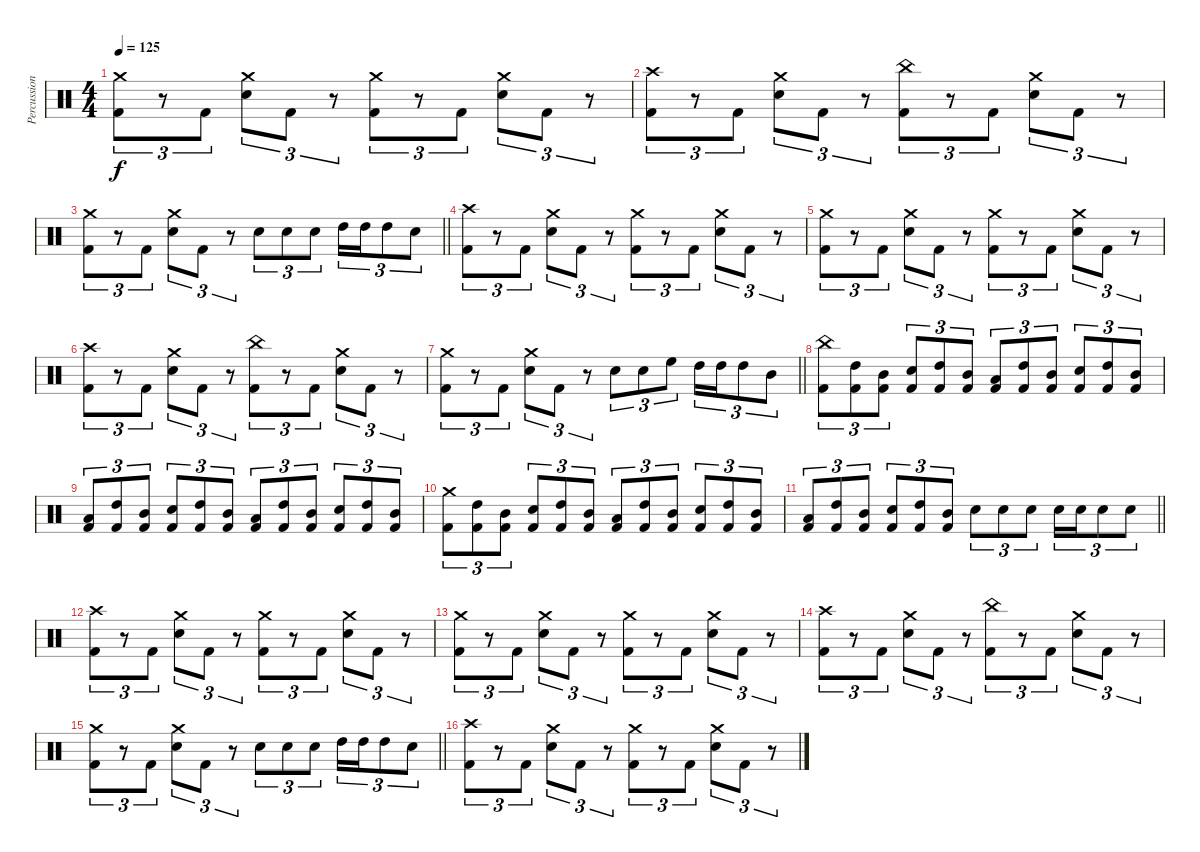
\track ("Percussion" "Percussion") {instrument percussion}
\staff {score}
\articulation defaults
\ts (4 4)
\tempo 125
\clef neutral
\ks c
("Crash medium (hit)" "Kick (hit) 2").8{tu (3 2) dy f} r.8{tu (3 2)} "Kick (hit) 2".8{tu (3 2)} ("Crash medium (hit)" "Snare (hit) 2").8{tu (3 2)} "Kick (hit) 2".8{tu (3 2)} r.8{tu (3 2)} ("Crash medium (hit)" "Kick (hit) 2").8{tu (3 2)} r.8{tu (3 2)} "Kick (hit) 2".8{tu (3 2)} ("Crash medium (hit)" "Snare (hit) 2").8{tu (3 2)} "Kick (hit) 2".8{tu (3 2)} r.8{tu (3 2)} |
("Crash high (hit)" "Kick (hit) 2").8{tu (3 2)} r.8{tu (3 2)} "Kick (hit) 2".8{tu (3 2)} ("Crash medium (hit)" "Snare (hit) 2").8{tu (3 2)} "Kick (hit) 2".8{tu (3 2)} r.8{tu (3 2)} ("China (hit)" "Kick (hit) 2").8{tu (3 2)} r.8{tu (3 2)} "Kick (hit) 2".8{tu (3 2)} ("Crash medium (hit)" "Snare (hit) 2").8{tu (3 2)} "Kick (hit) 2".8{tu (3 2)} r.8{tu (3 2)} |
\barLineRight lightlight
("Crash medium (hit)" "Kick (hit) 2").8{tu (3 2)} r.8{tu (3 2)} "Kick (hit) 2".8{tu (3 2)} ("Crash medium (hit)" "Snare (hit) 2").8{tu (3 2)} "Kick (hit) 2".8{tu (3 2)} r.8{tu (3 2)} "Snare (hit) 2".8{tu (3 2)} "Snare (hit) 2".8{tu (3 2)} "Snare (hit) 2".8{tu (3 2)} "High Tom (hit)".16{tu (3 2)} "High Tom (hit)".16{tu (3 2)} "High Tom (hit)".8{tu (3 2)} "Snare (hit) 2".8{tu (3 2)} |
("Crash high (hit)" "Kick (hit) 2").8{tu (3 2)} r.8{tu (3 2)} "Kick (hit) 2".8{tu (3 2)} ("Crash medium (hit)" "Snare (hit) 2").8{tu (3 2)} "Kick (hit) 2".8{tu (3 2)} r.8{tu (3 2)} ("Crash medium (hit)" "Kick (hit) 2").8{tu (3 2)} r.8{tu (3 2)} "Kick (hit) 2".8{tu (3 2)} ("Crash medium (hit)" "Snare (hit) 2").8{tu (3 2)} "Kick (hit) 2".8{tu (3 2)} r.8{tu (3 2)} |
("Crash medium (hit)" "Kick (hit) 2").8{tu (3 2)} r.8{tu (3 2)} "Kick (hit) 2".8{tu (3 2)} ("Crash medium (hit)" "Snare (hit) 2").8{tu (3 2)} "Kick (hit) 2".8{tu (3 2)} r.8{tu (3 2)} ("Crash medium (hit)" "Kick (hit) 2").8{tu (3 2)} r.8{tu (3 2)} "Kick (hit) 2".8{tu (3 2)} ("Crash medium (hit)" "Snare (hit) 2").8{tu (3 2)} "Kick (hit) 2".8{tu (3 2)} r.8{tu (3 2)} |
("Crash high (hit)" "Kick (hit) 2").8{tu (3 2)} r.8{tu (3 2)} "Kick (hit) 2".8{tu (3 2)} ("Crash medium (hit)" "Snare (hit) 2").8{tu (3 2)} "Kick (hit) 2".8{tu (3 2)} r.8{tu (3 2)} ("China (hit)" "Kick (hit) 2").8{tu (3 2)} r.8{tu (3 2)} "Kick (hit) 2".8{tu (3 2)} ("Crash medium (hit)" "Snare (hit) 2").8{tu (3 2)} "Kick (hit) 2".8{tu (3 2)} r.8{tu (3 2)} |
\barLineRight lightlight
("Crash medium (hit)" "Kick (hit) 2").8{tu (3 2)} r.8{tu (3 2)} "Kick (hit) 2".8{tu (3 2)} ("Crash medium (hit)" "Snare (hit) 2").8{tu (3 2)} "Kick (hit) 2".8{tu (3 2)} r.8{tu (3 2)} "Snare (hit) 2".8{tu (3 2)} "Snare (hit) 2".8{tu (3 2)} "High Floor Tom (hit)".8{tu (3 2)} "High Tom (hit)".16{tu (3 2)} "High Tom (hit)".16{tu (3 2)} "High Tom (hit)".8{tu (3 2)} "Mid Tom (hit)".8{tu (3 2)} |
("China (hit)" "Kick (hit) 2").8{tu (3 2)} ("High Tom (hit)" "Kick (hit) 2").8{tu (3 2)} ("Mid Tom (hit)" "Kick (hit) 2").8{tu (3 2)} ("Snare (hit) 2" "Kick (hit) 2").8{tu (3 2)} ("High Tom (hit)" "Kick (hit) 2").8{tu (3 2)} ("Mid Tom (hit)" "Kick (hit) 2").8{tu (3 2)} ("Low Tom (hit)" "Kick (hit) 2").8{tu (3 2)} ("High Tom (hit)" "Kick (hit) 2").8{tu (3 2)} ("Mid Tom (hit)" "Kick (hit) 2").8{tu (3 2)} ("Snare (hit) 2" "Kick (hit) 2").8{tu (3 2)} ("High Tom (hit)" "Kick (hit) 2").8{tu (3 2)} ("Mid Tom (hit)" "Kick (hit) 2").8{tu (3 2)} |
("Low Tom (hit)" "Kick (hit) 2").8{tu (3 2)} ("High Tom (hit)" "Kick (hit) 2").8{tu (3 2)} ("Mid Tom (hit)" "Kick (hit) 2").8{tu (3 2)} ("Snare (hit) 2" "Kick (hit) 2").8{tu (3 2)} ("High Tom (hit)" "Kick (hit) 2").8{tu (3 2)} ("Mid Tom (hit)" "Kick (hit) 2").8{tu (3 2)} ("Low Tom (hit)" "Kick (hit) 2").8{tu (3 2)} ("High Tom (hit)" "Kick (hit) 2").8{tu (3 2)} ("Mid Tom (hit)" "Kick (hit) 2").8{tu (3 2)} ("Snare (hit) 2" "Kick (hit) 2").8{tu (3 2)} ("High Tom (hit)" "Kick (hit) 2").8{tu (3 2)} ("Mid Tom (hit)" "Kick (hit) 2").8{tu (3 2)} |
("Crash medium (hit)" "Kick (hit) 2").8{tu (3 2)} ("High Tom (hit)" "Kick (hit) 2").8{tu (3 2)} ("Mid Tom (hit)" "Kick (hit) 2").8{tu (3 2)} ("Snare (hit) 2" "Kick (hit) 2").8{tu (3 2)} ("High Tom (hit)" "Kick (hit) 2").8{tu (3 2)} ("Mid Tom (hit)" "Kick (hit) 2").8{tu (3 2)} ("Low Tom (hit)" "Kick (hit) 2").8{tu (3 2)} ("High Tom (hit)" "Kick (hit) 2").8{tu (3 2)} ("Mid Tom (hit)" "Kick (hit) 2").8{tu (3 2)} ("Snare (hit) 2" "Kick (hit) 2").8{tu (3 2)} ("High Tom (hit)" "Kick (hit) 2").8{tu (3 2)} ("Mid Tom (hit)" "Kick (hit) 2").8{tu (3 2)} |
\barLineRight lightlight
("Low Tom (hit)" "Kick (hit) 2").8{tu (3 2)} ("High Tom (hit)" "Kick (hit) 2").8{tu (3 2)} ("Mid Tom (hit)" "Kick (hit) 2").8{tu (3 2)} ("Snare (hit) 2" "Kick (hit) 2").8{tu (3 2)} ("High Tom (hit)" "Kick (hit) 2").8{tu (3 2)} ("Mid Tom (hit)" "Kick (hit) 2").8{tu (3 2)} "Snare (hit) 2".8{tu (3 2)} "Snare (hit) 2".8{tu (3 2)} "Snare (hit) 2".8{tu (3 2)} "Snare (hit) 2".16{tu (3 2)} "Snare (hit) 2".16{tu (3 2)} "Snare (hit) 2".8{tu (3 2)} "Snare (hit) 2".8{tu (3 2)} |
\section ("" "")
("Crash high (hit)" "Kick (hit) 2").8{tu (3 2)} r.8{tu (3 2)} "Kick (hit) 2".8{tu (3 2)} ("Crash medium (hit)" "Snare (hit) 2").8{tu (3 2)} "Kick (hit) 2".8{tu (3 2)} r.8{tu (3 2)} ("Crash medium (hit)" "Kick (hit) 2").8{tu (3 2)} r.8{tu (3 2)} "Kick (hit) 2".8{tu (3 2)} ("Crash medium (hit)" "Snare (hit) 2").8{tu (3 2)} "Kick (hit) 2".8{tu (3 2)} r.8{tu (3 2)} |
("Crash medium (hit)" "Kick (hit) 2").8{tu (3 2)} r.8{tu (3 2)} "Kick (hit) 2".8{tu (3 2)} ("Crash medium (hit)" "Snare (hit) 2").8{tu (3 2)} "Kick (hit) 2".8{tu (3 2)} r.8{tu (3 2)} ("Crash medium (hit)" "Kick (hit) 2").8{tu (3 2)} r.8{tu (3 2)} "Kick (hit) 2".8{tu (3 2)} ("Crash medium (hit)" "Snare (hit) 2").8{tu (3 2)} "Kick (hit) 2".8{tu (3 2)} r.8{tu (3 2)} |
("Crash high (hit)" "Kick (hit) 2").8{tu (3 2)} r.8{tu (3 2)} "Kick (hit) 2".8{tu (3 2)} ("Crash medium (hit)" "Snare (hit) 2").8{tu (3 2)} "Kick (hit) 2".8{tu (3 2)} r.8{tu (3 2)} ("China (hit)" "Kick (hit) 2").8{tu (3 2)} r.8{tu (3 2)} "Kick (hit) 2".8{tu (3 2)} ("Crash medium (hit)" "Snare (hit) 2").8{tu (3 2)} "Kick (hit) 2".8{tu (3 2)} r.8{tu (3 2)} |
\barLineRight lightlight
("Crash medium (hit)" "Kick (hit) 2").8{tu (3 2)} r.8{tu (3 2)} "Kick (hit) 2".8{tu (3 2)} ("Crash medium (hit)" "Snare (hit) 2").8{tu (3 2)} "Kick (hit) 2".8{tu (3 2)} r.8{tu (3 2)} "Snare (hit) 2".8{tu (3 2)} "Snare (hit) 2".8{tu (3 2)} "Snare (hit) 2".8{tu (3 2)} "High Tom (hit)".16{tu (3 2)} "High Tom (hit)".16{tu (3 2)} "High Tom (hit)".8{tu (3 2)} "Snare (hit) 2".8{tu (3 2)} |
("Crash high (hit)" "Kick (hit) 2").8{tu (3 2)} r.8{tu (3 2)} "Kick (hit) 2".8{tu (3 2)} ("Crash medium (hit)" "Snare (hit) 2").8{tu (3 2)} "Kick (hit) 2".8{tu (3 2)} r.8{tu (3 2)} ("Crash medium (hit)" "Kick (hit) 2").8{tu (3 2)} r.8{tu (3 2)} "Kick (hit) 2".8{tu (3 2)} ("Crash medium (hit)" "Snare (hit) 2").8{tu (3 2)} "Kick (hit) 2".8{tu (3 2)} r.8{tu (3 2)}
